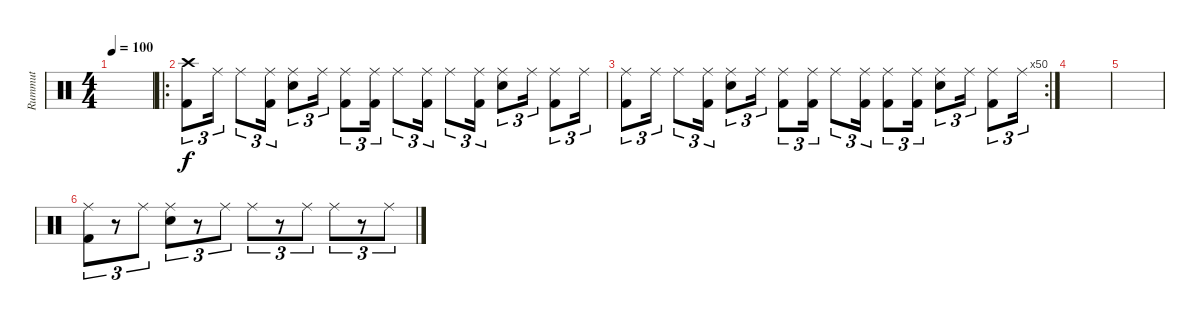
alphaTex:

\track ("Rummut" "Rummut") {instrument percussion}
\staff {score}
\articulation defaults
\ts (4 4)
\tempo 100
\clef neutral
\ks c
|
\ro
("Crash high (hit)" "Kick (hit) 2").8{tu (3 2)} "Ride (middle)".16{tu (3 2)} "Ride (middle)".8{tu (3 2)} ("Ride (middle)" "Kick (hit) 2").16{tu (3 2)} ("Ride (middle)" "Snare (hit) 2").8{tu (3 2)} "Ride (middle)".16{tu (3 2)} ("Ride (middle)" "Kick (hit) 2").8{tu (3 2)} ("Ride (middle)" "Kick (hit) 2").16{tu (3 2)} "Ride (middle)".8{tu (3 2)} ("Ride (middle)" "Kick (hit) 2").16{tu (3 2)} "Ride (middle)".8{tu (3 2)} ("Ride (middle)" "Kick (hit) 2").16{tu (3 2)} ("Ride (middle)" "Snare (hit) 2").8{tu (3 2)} "Ride (middle)".16{tu (3 2)} ("Ride (middle)" "Kick (hit) 2").8{tu (3 2)} "Ride (middle)".16{tu (3 2)} |
\rc 50
("Ride (middle)" "Kick (hit) 2").8{tu (3 2)} "Ride (middle)".16{tu (3 2)} "Ride (middle)".8{tu (3 2)} ("Ride (middle)" "Kick (hit) 2").16{tu (3 2)} ("Ride (middle)" "Snare (hit) 2").8{tu (3 2)} "Ride (middle)".16{tu (3 2)} ("Ride (middle)" "Kick (hit) 2").8{tu (3 2)} ("Ride (middle)" "Kick (hit) 2").16{tu (3 2)} "Ride (middle)".8{tu (3 2)} ("Ride (middle)" "Kick (hit) 2").16{tu (3 2)} ("Ride (middle)" "Kick (hit) 2").8{tu (3 2)} ("Ride (middle)" "Kick (hit) 2").16{tu (3 2)} ("Ride (middle)" "Snare (hit) 2").8{tu (3 2)} "Ride (middle)".16{tu (3 2)} ("Ride (middle)" "Kick (hit) 2").8{tu (3 2)} "Ride (middle)".16{tu (3 2)} |
|
|
("Ride (middle)" "Kick (hit) 2").8{tu (3 2)} r.8{tu (3 2)} "Ride (middle)".8{tu (3 2)} ("Ride (middle)" "Snare (hit) 2").8{tu (3 2)} r.8{tu (3 2)} "Ride (middle)".8{tu (3 2)} "Ride (middle)".8{tu (3 2)} r.8{tu (3 2)} "Ride (middle)".8{tu (3 2)} "Ride (middle)".8{tu (3 2)} r.8{tu (3 2)} "Ride (middle)".8{tu (3 2)}
